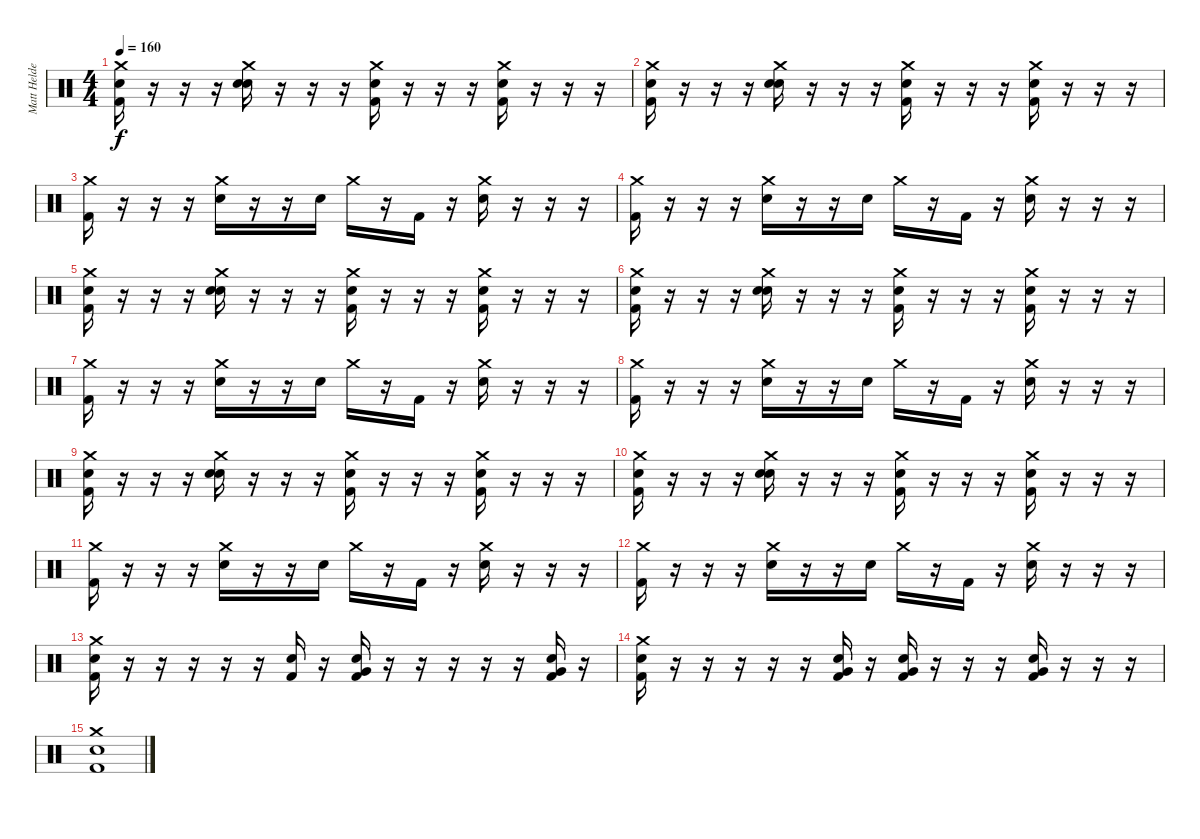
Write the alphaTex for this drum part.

\track ("Matt Helders" "Matt Helde") {instrument percussion}
\staff {score}
\articulation defaults
\ts (4 4)
\tempo 160
\clef neutral
\ks c
("Crash medium (hit)" "Snare (hit) 2" "Kick (hit) 2").16{dy f} r.16 r.16 r.16 ("Crash medium (hit)" "Snare (hit) 2" "Snare (hit) 2").16 r.16 r.16 r.16 ("Crash medium (hit)" "Snare (hit) 2" "Kick (hit) 2").16 r.16 r.16 r.16 ("Crash medium (hit)" "Kick (hit) 2" "Snare (hit) 2").16 r.16 r.16 r.16 |
("Crash medium (hit)" "Snare (hit) 2" "Kick (hit) 2").16 r.16 r.16 r.16 ("Crash medium (hit)" "Snare (hit) 2" "Snare (hit) 2").16 r.16 r.16 r.16 ("Crash medium (hit)" "Snare (hit) 2" "Kick (hit) 2").16 r.16 r.16 r.16 ("Crash medium (hit)" "Kick (hit) 2" "Snare (hit) 2").16 r.16 r.16 r.16 |
("Crash medium (hit)" "Kick (hit) 2").16 r.16 r.16 r.16 ("Crash medium (hit)" "Snare (hit) 2").16 r.16 r.16 "Snare (hit) 2".16 "Crash medium (hit)".16 r.16 "Kick (hit) 2".16 r.16 ("Crash medium (hit)" "Snare (hit) 2").16 r.16 r.16 r.16 |
("Crash medium (hit)" "Kick (hit) 2").16 r.16 r.16 r.16 ("Crash medium (hit)" "Snare (hit) 2").16 r.16 r.16 "Snare (hit) 2".16 "Crash medium (hit)".16 r.16 "Kick (hit) 2".16 r.16 ("Crash medium (hit)" "Snare (hit) 2").16 r.16 r.16 r.16 |
("Crash medium (hit)" "Snare (hit) 2" "Kick (hit) 2").16 r.16 r.16 r.16 ("Crash medium (hit)" "Snare (hit) 2" "Snare (hit) 2").16 r.16 r.16 r.16 ("Crash medium (hit)" "Snare (hit) 2" "Kick (hit) 2").16 r.16 r.16 r.16 ("Crash medium (hit)" "Kick (hit) 2" "Snare (hit) 2").16 r.16 r.16 r.16 |
("Crash medium (hit)" "Snare (hit) 2" "Kick (hit) 2").16 r.16 r.16 r.16 ("Crash medium (hit)" "Snare (hit) 2" "Snare (hit) 2").16 r.16 r.16 r.16 ("Crash medium (hit)" "Snare (hit) 2" "Kick (hit) 2").16 r.16 r.16 r.16 ("Crash medium (hit)" "Kick (hit) 2" "Snare (hit) 2").16 r.16 r.16 r.16 |
("Crash medium (hit)" "Kick (hit) 2").16 r.16 r.16 r.16 ("Crash medium (hit)" "Snare (hit) 2").16 r.16 r.16 "Snare (hit) 2".16 "Crash medium (hit)".16 r.16 "Kick (hit) 2".16 r.16 ("Crash medium (hit)" "Snare (hit) 2").16 r.16 r.16 r.16 |
("Crash medium (hit)" "Kick (hit) 2").16 r.16 r.16 r.16 ("Crash medium (hit)" "Snare (hit) 2").16 r.16 r.16 "Snare (hit) 2".16 "Crash medium (hit)".16 r.16 "Kick (hit) 2".16 r.16 ("Crash medium (hit)" "Snare (hit) 2").16 r.16 r.16 r.16 |
("Crash medium (hit)" "Snare (hit) 2" "Kick (hit) 2").16 r.16 r.16 r.16 ("Crash medium (hit)" "Snare (hit) 2" "Snare (hit) 2").16 r.16 r.16 r.16 ("Crash medium (hit)" "Snare (hit) 2" "Kick (hit) 2").16 r.16 r.16 r.16 ("Crash medium (hit)" "Kick (hit) 2" "Snare (hit) 2").16 r.16 r.16 r.16 |
("Crash medium (hit)" "Snare (hit) 2" "Kick (hit) 2").16 r.16 r.16 r.16 ("Crash medium (hit)" "Snare (hit) 2" "Snare (hit) 2").16 r.16 r.16 r.16 ("Crash medium (hit)" "Snare (hit) 2" "Kick (hit) 2").16 r.16 r.16 r.16 ("Crash medium (hit)" "Kick (hit) 2" "Snare (hit) 2").16 r.16 r.16 r.16 |
("Crash medium (hit)" "Kick (hit) 2").16 r.16 r.16 r.16 ("Crash medium (hit)" "Snare (hit) 2").16 r.16 r.16 "Snare (hit) 2".16 "Crash medium (hit)".16 r.16 "Kick (hit) 2".16 r.16 ("Crash medium (hit)" "Snare (hit) 2").16 r.16 r.16 r.16 |
("Crash medium (hit)" "Kick (hit) 2").16 r.16 r.16 r.16 ("Crash medium (hit)" "Snare (hit) 2").16 r.16 r.16 "Snare (hit) 2".16 "Crash medium (hit)".16 r.16 "Kick (hit) 2".16 r.16 ("Crash medium (hit)" "Snare (hit) 2").16 r.16 r.16 r.16 |
("Crash medium (hit)" "Snare (hit) 2" "Kick (hit) 2").16 r.16 r.16 r.16 r.16 r.16 ("Snare (hit) 2" "Kick (hit) 2").16 r.16 ("Very Low Tom (hit)" "Snare (hit) 2" "Kick (hit) 2").16 r.16 r.16 r.16 r.16 r.16 ("Very Low Tom (hit)" "Snare (hit) 2" "Kick (hit) 2").16 r.16 |
("Crash medium (hit)" "Snare (hit) 2" "Kick (hit) 2").16 r.16 r.16 r.16 r.16 r.16 ("Very Low Tom (hit)" "Snare (hit) 2" "Kick (hit) 2").16 r.16 ("Very Low Tom (hit)" "Snare (hit) 2" "Kick (hit) 2").16 r.16 r.16 r.16 ("Very Low Tom (hit)" "Snare (hit) 2" "Kick (hit) 2").16 r.16 r.16 r.16 |
("Crash medium (hit)" "Snare (hit) 2" "Kick (hit) 2").1
